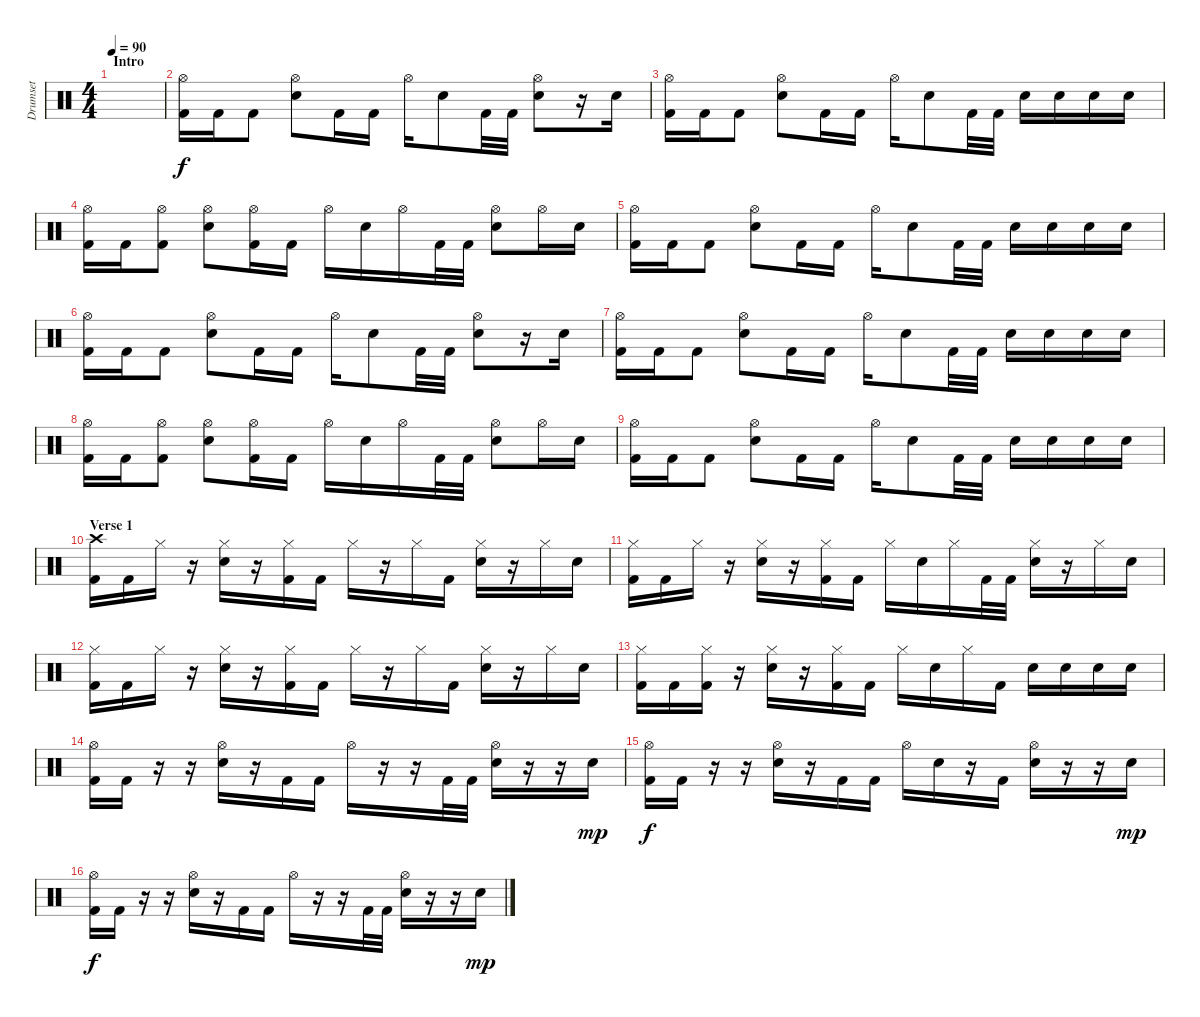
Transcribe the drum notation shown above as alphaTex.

\track ("Drumset" "Drumset") {instrument percussion}
\staff {score}
\articulation defaults
\ts (4 4)
\section ("" "Intro")
\tempo 90
\clef neutral
\ks c
|
("Hi-Hat (open)" "Kick (hit) 2").16 "Kick (hit) 2".16 "Kick (hit) 2".8 ("Hi-Hat (open)" "Electric Snare (hit)").8 "Kick (hit) 2".16 "Kick (hit) 2".16 "Hi-Hat (open)".16 "Electric Snare (hit)".8 "Kick (hit) 2".32 "Kick (hit) 2".32 ("Hi-Hat (open)" "Electric Snare (hit)").8 r.16 "Electric Snare (hit)".16 |
("Hi-Hat (open)" "Kick (hit) 2").16 "Kick (hit) 2".16 "Kick (hit) 2".8 ("Hi-Hat (open)" "Electric Snare (hit)").8 "Kick (hit) 2".16 "Kick (hit) 2".16 "Hi-Hat (open)".16 "Electric Snare (hit)".8 "Kick (hit) 2".32 "Kick (hit) 2".32 "Electric Snare (hit)".16 "Electric Snare (hit)".16 "Electric Snare (hit)".16 "Electric Snare (hit)".16 |
("Hi-Hat (open)" "Kick (hit) 2").16 "Kick (hit) 2".16 ("Hi-Hat (open)" "Kick (hit) 2").8 ("Hi-Hat (open)" "Electric Snare (hit)").8 ("Hi-Hat (open)" "Kick (hit) 2").16 "Kick (hit) 2".16 "Hi-Hat (open)".16 "Electric Snare (hit)".16 "Hi-Hat (open)".16 "Kick (hit) 2".32 "Kick (hit) 2".32 ("Hi-Hat (open)" "Electric Snare (hit)").8 "Hi-Hat (open)".16 "Electric Snare (hit)".16 |
("Hi-Hat (open)" "Kick (hit) 2").16 "Kick (hit) 2".16 "Kick (hit) 2".8 ("Hi-Hat (open)" "Electric Snare (hit)").8 "Kick (hit) 2".16 "Kick (hit) 2".16 "Hi-Hat (open)".16 "Electric Snare (hit)".8 "Kick (hit) 2".32 "Kick (hit) 2".32 "Electric Snare (hit)".16 "Electric Snare (hit)".16 "Electric Snare (hit)".16 "Electric Snare (hit)".16 |
("Hi-Hat (open)" "Kick (hit) 2").16 "Kick (hit) 2".16 "Kick (hit) 2".8 ("Hi-Hat (open)" "Electric Snare (hit)").8 "Kick (hit) 2".16 "Kick (hit) 2".16 "Hi-Hat (open)".16 "Electric Snare (hit)".8 "Kick (hit) 2".32 "Kick (hit) 2".32 ("Hi-Hat (open)" "Electric Snare (hit)").8 r.16 "Electric Snare (hit)".16 |
("Hi-Hat (open)" "Kick (hit) 2").16 "Kick (hit) 2".16 "Kick (hit) 2".8 ("Hi-Hat (open)" "Electric Snare (hit)").8 "Kick (hit) 2".16 "Kick (hit) 2".16 "Hi-Hat (open)".16 "Electric Snare (hit)".8 "Kick (hit) 2".32 "Kick (hit) 2".32 "Electric Snare (hit)".16 "Electric Snare (hit)".16 "Electric Snare (hit)".16 "Electric Snare (hit)".16 |
("Hi-Hat (open)" "Kick (hit) 2").16 "Kick (hit) 2".16 ("Hi-Hat (open)" "Kick (hit) 2").8 ("Hi-Hat (open)" "Electric Snare (hit)").8 ("Hi-Hat (open)" "Kick (hit) 2").16 "Kick (hit) 2".16 "Hi-Hat (open)".16 "Electric Snare (hit)".16 "Hi-Hat (open)".16 "Kick (hit) 2".32 "Kick (hit) 2".32 ("Hi-Hat (open)" "Electric Snare (hit)").8 "Hi-Hat (open)".16 "Electric Snare (hit)".16 |
("Hi-Hat (open)" "Kick (hit) 2").16 "Kick (hit) 2".16 "Kick (hit) 2".8 ("Hi-Hat (open)" "Electric Snare (hit)").8 "Kick (hit) 2".16 "Kick (hit) 2".16 "Hi-Hat (open)".16 "Electric Snare (hit)".8 "Kick (hit) 2".32 "Kick (hit) 2".32 "Electric Snare (hit)".16 "Electric Snare (hit)".16 "Electric Snare (hit)".16 "Electric Snare (hit)".16 |
\section ("" "Verse 1")
("Crash high (hit)" "Kick (hit) 2").16 "Kick (hit) 2".16 "Hi-Hat (closed)".16 r.16 ("Hi-Hat (closed)" "Electric Snare (hit)").16 r.16 ("Hi-Hat (closed)" "Kick (hit) 2").16 "Kick (hit) 2".16 "Hi-Hat (closed)".16 r.16 "Hi-Hat (closed)".16 "Kick (hit) 2".16 ("Hi-Hat (closed)" "Electric Snare (hit)").16 r.16 "Hi-Hat (closed)".16 "Electric Snare (hit)".16 |
("Hi-Hat (closed)" "Kick (hit) 2").16 "Kick (hit) 2".16 "Hi-Hat (closed)".16 r.16 ("Hi-Hat (closed)" "Electric Snare (hit)").16 r.16 ("Hi-Hat (closed)" "Kick (hit) 2").16 "Kick (hit) 2".16 "Hi-Hat (closed)".16 "Electric Snare (hit)".16 "Hi-Hat (closed)".16 "Kick (hit) 2".32 "Kick (hit) 2".32 ("Hi-Hat (closed)" "Electric Snare (hit)").16 r.16 "Hi-Hat (closed)".16 "Electric Snare (hit)".16 |
("Hi-Hat (closed)" "Kick (hit) 2").16 "Kick (hit) 2".16 "Hi-Hat (closed)".16 r.16 ("Hi-Hat (closed)" "Electric Snare (hit)").16 r.16 ("Hi-Hat (closed)" "Kick (hit) 2").16 "Kick (hit) 2".16 "Hi-Hat (closed)".16 r.16 "Hi-Hat (closed)".16 "Kick (hit) 2".16 ("Hi-Hat (closed)" "Electric Snare (hit)").16 r.16 "Hi-Hat (closed)".16 "Electric Snare (hit)".16 |
("Hi-Hat (closed)" "Kick (hit) 2").16 "Kick (hit) 2".16 ("Hi-Hat (closed)" "Kick (hit) 2").16 r.16 ("Hi-Hat (closed)" "Electric Snare (hit)").16 r.16 ("Hi-Hat (closed)" "Kick (hit) 2").16 "Kick (hit) 2".16 "Hi-Hat (closed)".16 "Electric Snare (hit)".16 "Hi-Hat (closed)".16 "Kick (hit) 2".16 "Electric Snare (hit)".16 "Electric Snare (hit)".16 "Electric Snare (hit)".16 "Electric Snare (hit)".16 |
("Hi-Hat (open)" "Kick (hit) 2").16 "Kick (hit) 2".16 r.16 r.16 ("Hi-Hat (open)" "Electric Snare (hit)").16 r.16 "Kick (hit) 2".16 "Kick (hit) 2".16 "Hi-Hat (open)".16 r.16 r.16 "Kick (hit) 2".32 "Kick (hit) 2".32 ("Hi-Hat (open)" "Electric Snare (hit)").16 r.16 r.16 "Electric Snare (hit)".16{dy mp} |
("Hi-Hat (open)" "Kick (hit) 2").16{dy f} "Kick (hit) 2".16 r.16 r.16 ("Hi-Hat (open)" "Electric Snare (hit)").16 r.16 "Kick (hit) 2".16 "Kick (hit) 2".16 "Hi-Hat (open)".16 "Electric Snare (hit)".16 r.16 "Kick (hit) 2".16 ("Hi-Hat (open)" "Electric Snare (hit)").16 r.16 r.16 "Electric Snare (hit)".16{dy mp} |
("Hi-Hat (open)" "Kick (hit) 2").16{dy f} "Kick (hit) 2".16 r.16 r.16 ("Hi-Hat (open)" "Electric Snare (hit)").16 r.16 "Kick (hit) 2".16 "Kick (hit) 2".16 "Hi-Hat (open)".16 r.16 r.16 "Kick (hit) 2".32 "Kick (hit) 2".32 ("Hi-Hat (open)" "Electric Snare (hit)").16 r.16 r.16 "Electric Snare (hit)".16{dy mp}
